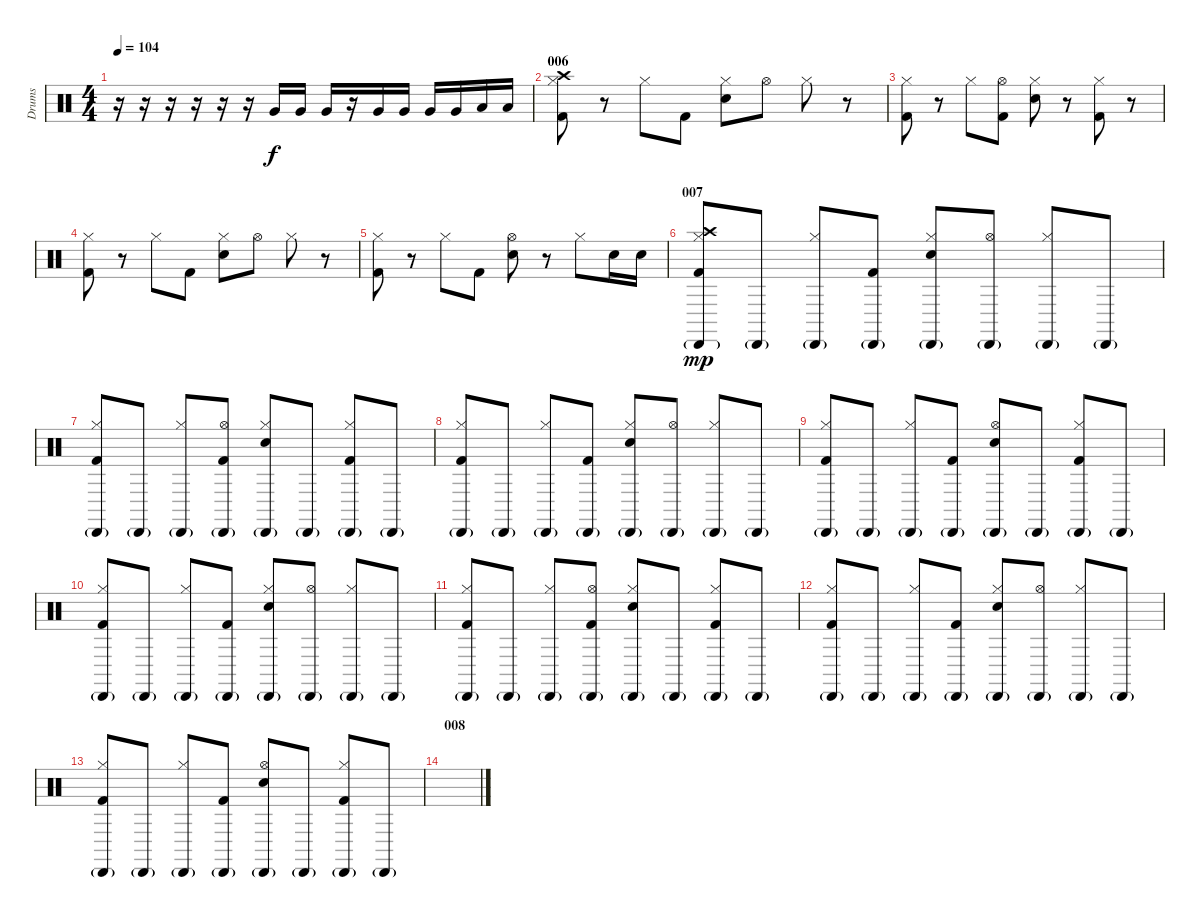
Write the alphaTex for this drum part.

\track ("Drums" "Drums") {instrument percussion}
\staff {score}
\articulation defaults
\ts (4 4)
\tempo 104
\clef neutral
\ks c
r.16{dy f} r.16 r.16 r.16 r.16 r.16 "Very Low Tom (hit)".16 "Very Low Tom (hit)".16 "Very Low Tom (hit)".16 r.16 "Very Low Tom (hit)".16 "Very Low Tom (hit)".16 "Very Low Tom (hit)".16 "Very Low Tom (hit)".16 "Low Floor Tom (hit)".16 "Low Floor Tom (hit)".16 |
\section ("" "006")
("Hi-Hat (closed)" "Kick (hit) 2" "Crash high (hit)").8 r.8 "Hi-Hat (closed)".8 "Kick (hit) 2".8 ("Hi-Hat (closed)" "Electric Snare (hit)").8 "Hi-Hat (open)".8 "Hi-Hat (closed)".8 r.8 |
("Hi-Hat (closed)" "Kick (hit) 2").8 r.8 "Hi-Hat (closed)".8 ("Hi-Hat (open)" "Kick (hit) 2").8 ("Hi-Hat (closed)" "Electric Snare (hit)").8 r.8 ("Hi-Hat (closed)" "Kick (hit) 2").8 r.8 |
("Hi-Hat (closed)" "Kick (hit) 2").8 r.8 "Hi-Hat (closed)".8 "Kick (hit) 2".8 ("Hi-Hat (closed)" "Electric Snare (hit)").8 "Hi-Hat (open)".8 "Hi-Hat (closed)".8 r.8 |
("Hi-Hat (closed)" "Kick (hit) 2").8 r.8 "Hi-Hat (closed)".8 "Kick (hit) 2".8 ("Hi-Hat (open)" "Electric Snare (hit)").8 r.8 "Hi-Hat (closed)".8 "Electric Snare (hit)".16 "Electric Snare (hit)".16 |
\section ("" "007")
("Hi-Hat (closed)" "Kick (hit) 2" "Cabasa (hit)"{g} "Crash high (hit)").8{dy mp} "Cabasa (hit)"{g}.8 ("Hi-Hat (closed)" "Cabasa (hit)"{g}).8 ("Kick (hit) 2" "Cabasa (hit)"{g}).8 ("Hi-Hat (closed)" "Electric Snare (hit)" "Cabasa (hit)"{g}).8 ("Hi-Hat (open)" "Cabasa (hit)"{g}).8 ("Hi-Hat (closed)" "Cabasa (hit)"{g}).8 "Cabasa (hit)"{g}.8 |
("Hi-Hat (closed)" "Kick (hit) 2" "Cabasa (hit)"{g}).8 "Cabasa (hit)"{g}.8 ("Hi-Hat (closed)" "Cabasa (hit)"{g}).8 ("Hi-Hat (open)" "Kick (hit) 2" "Cabasa (hit)"{g}).8 ("Hi-Hat (closed)" "Electric Snare (hit)" "Cabasa (hit)"{g}).8 "Cabasa (hit)"{g}.8 ("Hi-Hat (closed)" "Kick (hit) 2" "Cabasa (hit)"{g}).8 "Cabasa (hit)"{g}.8 |
("Hi-Hat (closed)" "Kick (hit) 2" "Cabasa (hit)"{g}).8 "Cabasa (hit)"{g}.8 ("Hi-Hat (closed)" "Cabasa (hit)"{g}).8 ("Kick (hit) 2" "Cabasa (hit)"{g}).8 ("Hi-Hat (closed)" "Electric Snare (hit)" "Cabasa (hit)"{g}).8 ("Hi-Hat (open)" "Cabasa (hit)"{g}).8 ("Hi-Hat (closed)" "Cabasa (hit)"{g}).8 "Cabasa (hit)"{g}.8 |
("Hi-Hat (closed)" "Kick (hit) 2" "Cabasa (hit)"{g}).8 "Cabasa (hit)"{g}.8 ("Hi-Hat (closed)" "Cabasa (hit)"{g}).8 ("Kick (hit) 2" "Cabasa (hit)"{g}).8 ("Hi-Hat (open)" "Electric Snare (hit)" "Cabasa (hit)"{g}).8 "Cabasa (hit)"{g}.8 ("Hi-Hat (closed)" "Kick (hit) 2" "Cabasa (hit)"{g}).8 "Cabasa (hit)"{g}.8 |
("Hi-Hat (closed)" "Kick (hit) 2" "Cabasa (hit)"{g}).8 "Cabasa (hit)"{g}.8 ("Hi-Hat (closed)" "Cabasa (hit)"{g}).8 ("Kick (hit) 2" "Cabasa (hit)"{g}).8 ("Hi-Hat (closed)" "Electric Snare (hit)" "Cabasa (hit)"{g}).8 ("Hi-Hat (open)" "Cabasa (hit)"{g}).8 ("Hi-Hat (closed)" "Cabasa (hit)"{g}).8 "Cabasa (hit)"{g}.8 |
("Hi-Hat (closed)" "Kick (hit) 2" "Cabasa (hit)"{g}).8 "Cabasa (hit)"{g}.8 ("Hi-Hat (closed)" "Cabasa (hit)"{g}).8 ("Hi-Hat (open)" "Kick (hit) 2" "Cabasa (hit)"{g}).8 ("Hi-Hat (closed)" "Electric Snare (hit)" "Cabasa (hit)"{g}).8 "Cabasa (hit)"{g}.8 ("Hi-Hat (closed)" "Kick (hit) 2" "Cabasa (hit)"{g}).8 "Cabasa (hit)"{g}.8 |
("Hi-Hat (closed)" "Kick (hit) 2" "Cabasa (hit)"{g}).8 "Cabasa (hit)"{g}.8 ("Hi-Hat (closed)" "Cabasa (hit)"{g}).8 ("Kick (hit) 2" "Cabasa (hit)"{g}).8 ("Hi-Hat (closed)" "Electric Snare (hit)" "Cabasa (hit)"{g}).8 ("Hi-Hat (open)" "Cabasa (hit)"{g}).8 ("Hi-Hat (closed)" "Cabasa (hit)"{g}).8 "Cabasa (hit)"{g}.8 |
("Hi-Hat (closed)" "Kick (hit) 2" "Cabasa (hit)"{g}).8 "Cabasa (hit)"{g}.8 ("Hi-Hat (closed)" "Cabasa (hit)"{g}).8 ("Kick (hit) 2" "Cabasa (hit)"{g}).8 ("Hi-Hat (open)" "Electric Snare (hit)" "Cabasa (hit)"{g}).8 "Cabasa (hit)"{g}.8 ("Hi-Hat (closed)" "Kick (hit) 2" "Cabasa (hit)"{g}).8 "Cabasa (hit)"{g}.8 |
\section ("" "008")
